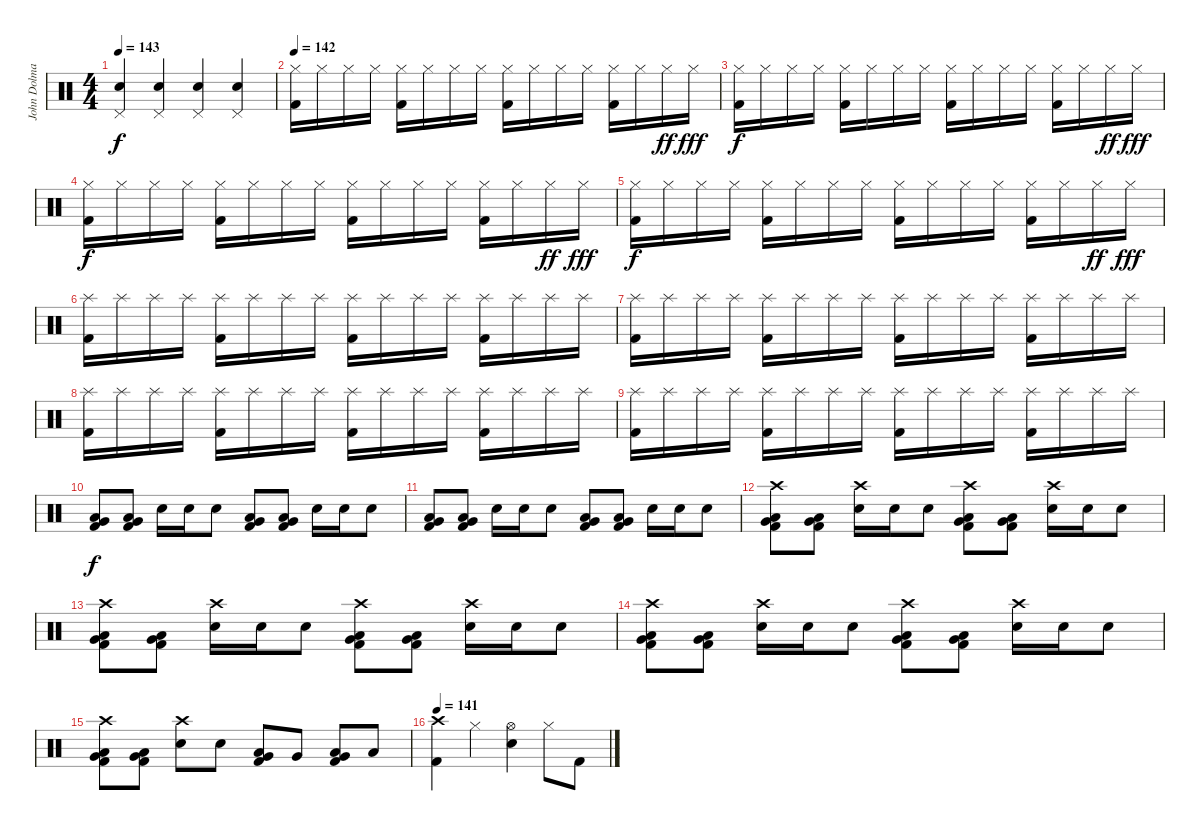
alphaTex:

\track ("John Dolmayan (Drums)" "John Dolma") {instrument percussion}
\staff {score}
\articulation defaults
\ts (4 4)
\tempo 143
\clef neutral
\ks c
("Pedal Hi-Hat (hit)" "Electric Snare (hit)").4{dy f} ("Pedal Hi-Hat (hit)" "Electric Snare (hit)").4 ("Pedal Hi-Hat (hit)" "Electric Snare (hit)").4 ("Pedal Hi-Hat (hit)" "Electric Snare (hit)").4 |
\tempo 142
("Hi-Hat (closed)" "Kick (hit) 2").16 "Hi-Hat (closed)".16 "Hi-Hat (closed)".16 "Hi-Hat (closed)".16 ("Hi-Hat (closed)" "Kick (hit) 2").16 "Hi-Hat (closed)".16 "Hi-Hat (closed)".16 "Hi-Hat (closed)".16 ("Hi-Hat (closed)" "Kick (hit) 2").16 "Hi-Hat (closed)".16 "Hi-Hat (closed)".16 "Hi-Hat (closed)".16 ("Hi-Hat (closed)" "Kick (hit) 2").16 "Hi-Hat (closed)".16 "Hi-Hat (closed)".16{dy ff} "Hi-Hat (closed)".16{dy fff} |
("Hi-Hat (closed)" "Kick (hit) 2").16{dy f} "Hi-Hat (closed)".16 "Hi-Hat (closed)".16 "Hi-Hat (closed)".16 ("Hi-Hat (closed)" "Kick (hit) 2").16 "Hi-Hat (closed)".16 "Hi-Hat (closed)".16 "Hi-Hat (closed)".16 ("Hi-Hat (closed)" "Kick (hit) 2").16 "Hi-Hat (closed)".16 "Hi-Hat (closed)".16 "Hi-Hat (closed)".16 ("Hi-Hat (closed)" "Kick (hit) 2").16 "Hi-Hat (closed)".16 "Hi-Hat (closed)".16{dy ff} "Hi-Hat (closed)".16{dy fff} |
("Hi-Hat (closed)" "Kick (hit) 2").16{dy f} "Hi-Hat (closed)".16 "Hi-Hat (closed)".16 "Hi-Hat (closed)".16 ("Hi-Hat (closed)" "Kick (hit) 2").16 "Hi-Hat (closed)".16 "Hi-Hat (closed)".16 "Hi-Hat (closed)".16 ("Hi-Hat (closed)" "Kick (hit) 2").16 "Hi-Hat (closed)".16 "Hi-Hat (closed)".16 "Hi-Hat (closed)".16 ("Hi-Hat (closed)" "Kick (hit) 2").16 "Hi-Hat (closed)".16 "Hi-Hat (closed)".16{dy ff} "Hi-Hat (closed)".16{dy fff} |
("Hi-Hat (closed)" "Kick (hit) 2").16{dy f} "Hi-Hat (closed)".16 "Hi-Hat (closed)".16 "Hi-Hat (closed)".16 ("Hi-Hat (closed)" "Kick (hit) 2").16 "Hi-Hat (closed)".16 "Hi-Hat (closed)".16 "Hi-Hat (closed)".16 ("Hi-Hat (closed)" "Kick (hit) 2").16 "Hi-Hat (closed)".16 "Hi-Hat (closed)".16 "Hi-Hat (closed)".16 ("Hi-Hat (closed)" "Kick (hit) 2").16 "Hi-Hat (closed)".16 "Hi-Hat (closed)".16{dy ff} "Hi-Hat (closed)".16{dy fff} |
("Splash (hit)" "Kick (hit) 2").16 "Splash (hit)".16 "Splash (hit)".16 "Splash (hit)".16 ("Splash (hit)" "Kick (hit) 2").16 "Splash (hit)".16 "Splash (hit)".16 "Splash (hit)".16 ("Splash (hit)" "Kick (hit) 2").16 "Splash (hit)".16 "Splash (hit)".16 "Splash (hit)".16 ("Splash (hit)" "Kick (hit) 2").16 "Splash (hit)".16 "Splash (hit)".16 "Splash (hit)".16 |
("Splash (hit)" "Kick (hit) 2").16 "Splash (hit)".16 "Splash (hit)".16 "Splash (hit)".16 ("Splash (hit)" "Kick (hit) 2").16 "Splash (hit)".16 "Splash (hit)".16 "Splash (hit)".16 ("Splash (hit)" "Kick (hit) 2").16 "Splash (hit)".16 "Splash (hit)".16 "Splash (hit)".16 ("Splash (hit)" "Kick (hit) 2").16 "Splash (hit)".16 "Splash (hit)".16 "Splash (hit)".16 |
("Splash (hit)" "Kick (hit) 2").16 "Splash (hit)".16 "Splash (hit)".16 "Splash (hit)".16 ("Splash (hit)" "Kick (hit) 2").16 "Splash (hit)".16 "Splash (hit)".16 "Splash (hit)".16 ("Splash (hit)" "Kick (hit) 2").16 "Splash (hit)".16 "Splash (hit)".16 "Splash (hit)".16 ("Splash (hit)" "Kick (hit) 2").16 "Splash (hit)".16 "Splash (hit)".16 "Splash (hit)".16 |
("Splash (hit)" "Kick (hit) 2").16 "Splash (hit)".16 "Splash (hit)".16 "Splash (hit)".16 ("Splash (hit)" "Kick (hit) 2").16 "Splash (hit)".16 "Splash (hit)".16 "Splash (hit)".16 ("Splash (hit)" "Kick (hit) 2").16 "Splash (hit)".16 "Splash (hit)".16 "Splash (hit)".16 ("Splash (hit)" "Kick (hit) 2").16 "Splash (hit)".16 "Splash (hit)".16 "Splash (hit)".16 |
("Very Low Tom (hit)" "Low Floor Tom (hit)" "Kick (hit) 2").8{dy f} ("Very Low Tom (hit)" "Low Floor Tom (hit)" "Kick (hit) 2").8 "Electric Snare (hit)".16 "Electric Snare (hit)".16 "Electric Snare (hit)".8 ("Very Low Tom (hit)" "Low Floor Tom (hit)" "Kick (hit) 2").8 ("Very Low Tom (hit)" "Low Floor Tom (hit)" "Kick (hit) 2").8 "Electric Snare (hit)".16 "Electric Snare (hit)".16 "Electric Snare (hit)".8 |
("Very Low Tom (hit)" "Low Floor Tom (hit)" "Kick (hit) 2").8 ("Very Low Tom (hit)" "Low Floor Tom (hit)" "Kick (hit) 2").8 "Electric Snare (hit)".16 "Electric Snare (hit)".16 "Electric Snare (hit)".8 ("Very Low Tom (hit)" "Low Floor Tom (hit)" "Kick (hit) 2").8 ("Very Low Tom (hit)" "Low Floor Tom (hit)" "Kick (hit) 2").8 "Electric Snare (hit)".16 "Electric Snare (hit)".16 "Electric Snare (hit)".8 |
("Crash high (hit)" "Very Low Tom (hit)" "Low Floor Tom (hit)" "Kick (hit) 2").8 ("Very Low Tom (hit)" "Low Floor Tom (hit)" "Kick (hit) 2").8 ("Crash high (hit)" "Electric Snare (hit)").16 "Electric Snare (hit)".16 "Electric Snare (hit)".8 ("Crash high (hit)" "Very Low Tom (hit)" "Low Floor Tom (hit)" "Kick (hit) 2").8 ("Very Low Tom (hit)" "Low Floor Tom (hit)" "Kick (hit) 2").8 ("Crash high (hit)" "Electric Snare (hit)").16 "Electric Snare (hit)".16 "Electric Snare (hit)".8 |
("Crash high (hit)" "Very Low Tom (hit)" "Low Floor Tom (hit)" "Kick (hit) 2").8 ("Very Low Tom (hit)" "Low Floor Tom (hit)" "Kick (hit) 2").8 ("Crash high (hit)" "Electric Snare (hit)").16 "Electric Snare (hit)".16 "Electric Snare (hit)".8 ("Crash high (hit)" "Very Low Tom (hit)" "Low Floor Tom (hit)" "Kick (hit) 2").8 ("Very Low Tom (hit)" "Low Floor Tom (hit)" "Kick (hit) 2").8 ("Crash high (hit)" "Electric Snare (hit)").16 "Electric Snare (hit)".16 "Electric Snare (hit)".8 |
("Crash high (hit)" "Very Low Tom (hit)" "Low Floor Tom (hit)" "Kick (hit) 2").8 ("Very Low Tom (hit)" "Low Floor Tom (hit)" "Kick (hit) 2").8 ("Crash high (hit)" "Electric Snare (hit)").16 "Electric Snare (hit)".16 "Electric Snare (hit)".8 ("Crash high (hit)" "Very Low Tom (hit)" "Low Floor Tom (hit)" "Kick (hit) 2").8 ("Very Low Tom (hit)" "Low Floor Tom (hit)" "Kick (hit) 2").8 ("Crash high (hit)" "Electric Snare (hit)").16 "Electric Snare (hit)".16 "Electric Snare (hit)".8 |
("Crash high (hit)" "Very Low Tom (hit)" "Low Floor Tom (hit)" "Kick (hit) 2").8 ("Very Low Tom (hit)" "Low Floor Tom (hit)" "Kick (hit) 2").8 ("Crash high (hit)" "Electric Snare (hit)").8 "Electric Snare (hit)".8 ("Low Tom (hit)" "Very Low Tom (hit)" "Kick (hit) 2").8 "Very Low Tom (hit)".8 ("Very Low Tom (hit)" "Low Floor Tom (hit)" "Kick (hit) 2").8 "Low Floor Tom (hit)".8 |
\tempo 141
("Crash high (hit)" "Kick (hit) 2").4 "Hi-Hat (closed)".4 ("Hi-Hat (open)" "Electric Snare (hit)").4 "Hi-Hat (closed)".8 "Kick (hit) 2".8
